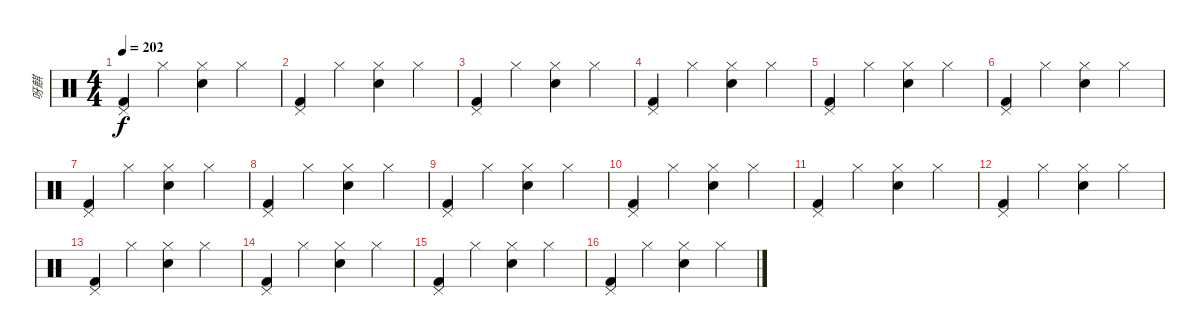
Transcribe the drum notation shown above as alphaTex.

\track ("呀麒" "呀麒") {instrument percussion}
\staff {score}
\articulation defaults
\ts (4 4)
\tempo 202
\clef neutral
\ks c
("Pedal Hi-Hat (hit)" "Kick (hit) 2").4{dy f} "Hi-Hat (closed)".4 ("Hi-Hat (closed)" "Snare (hit) 2").4 "Hi-Hat (closed)".4 |
("Pedal Hi-Hat (hit)" "Kick (hit) 2").4 "Hi-Hat (closed)".4 ("Hi-Hat (closed)" "Snare (hit) 2").4 "Hi-Hat (closed)".4 |
("Pedal Hi-Hat (hit)" "Kick (hit) 2").4 "Hi-Hat (closed)".4 ("Hi-Hat (closed)" "Snare (hit) 2").4 "Hi-Hat (closed)".4 |
("Pedal Hi-Hat (hit)" "Kick (hit) 2").4 "Hi-Hat (closed)".4 ("Hi-Hat (closed)" "Snare (hit) 2").4 "Hi-Hat (closed)".4 |
("Pedal Hi-Hat (hit)" "Kick (hit) 2").4 "Hi-Hat (closed)".4 ("Hi-Hat (closed)" "Snare (hit) 2").4 "Hi-Hat (closed)".4 |
("Pedal Hi-Hat (hit)" "Kick (hit) 2").4 "Hi-Hat (closed)".4 ("Hi-Hat (closed)" "Snare (hit) 2").4 "Hi-Hat (closed)".4 |
("Pedal Hi-Hat (hit)" "Kick (hit) 2").4 "Hi-Hat (closed)".4 ("Hi-Hat (closed)" "Snare (hit) 2").4 "Hi-Hat (closed)".4 |
("Pedal Hi-Hat (hit)" "Kick (hit) 2").4 "Hi-Hat (closed)".4 ("Hi-Hat (closed)" "Snare (hit) 2").4 "Hi-Hat (closed)".4 |
("Pedal Hi-Hat (hit)" "Kick (hit) 2").4 "Hi-Hat (closed)".4 ("Hi-Hat (closed)" "Snare (hit) 2").4 "Hi-Hat (closed)".4 |
("Pedal Hi-Hat (hit)" "Kick (hit) 2").4 "Hi-Hat (closed)".4 ("Hi-Hat (closed)" "Snare (hit) 2").4 "Hi-Hat (closed)".4 |
("Pedal Hi-Hat (hit)" "Kick (hit) 2").4 "Hi-Hat (closed)".4 ("Hi-Hat (closed)" "Snare (hit) 2").4 "Hi-Hat (closed)".4 |
("Pedal Hi-Hat (hit)" "Kick (hit) 2").4 "Hi-Hat (closed)".4 ("Hi-Hat (closed)" "Snare (hit) 2").4 "Hi-Hat (closed)".4 |
("Pedal Hi-Hat (hit)" "Kick (hit) 2").4 "Hi-Hat (closed)".4 ("Hi-Hat (closed)" "Snare (hit) 2").4 "Hi-Hat (closed)".4 |
("Pedal Hi-Hat (hit)" "Kick (hit) 2").4 "Hi-Hat (closed)".4 ("Hi-Hat (closed)" "Snare (hit) 2").4 "Hi-Hat (closed)".4 |
("Pedal Hi-Hat (hit)" "Kick (hit) 2").4 "Hi-Hat (closed)".4 ("Hi-Hat (closed)" "Snare (hit) 2").4 "Hi-Hat (closed)".4 |
("Pedal Hi-Hat (hit)" "Kick (hit) 2").4 "Hi-Hat (closed)".4 ("Hi-Hat (closed)" "Snare (hit) 2").4 "Hi-Hat (closed)".4
